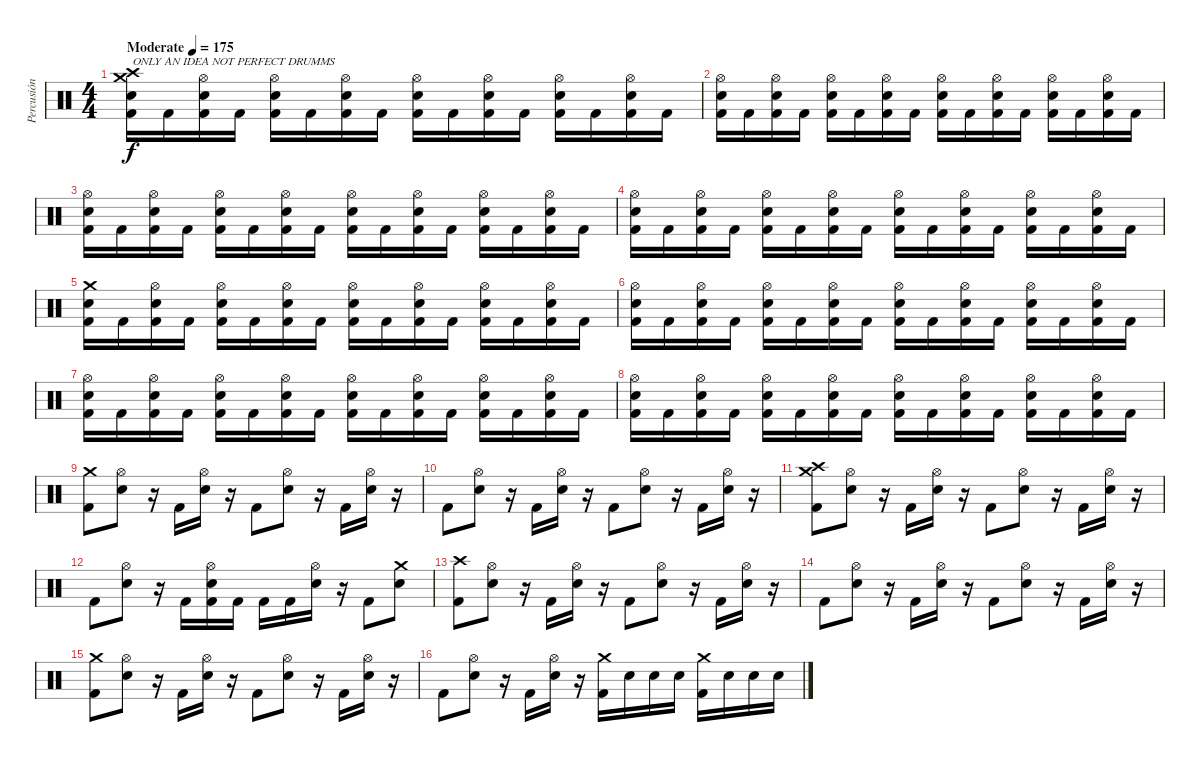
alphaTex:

\track ("Percusión" "Percusión") {instrument percussion}
\staff {score}
\articulation defaults
\ts (4 4)
\tempo (175 "Moderate")
\clef neutral
\ks c
("Crash medium (hit)" "Crash high (hit)" "Electric Snare (hit)" "Kick (hit) 2").16{txt "ONLY AN IDEA NOT PERFECT DRUMMS" dy f} "Kick (hit) 2".16 ("Hi-Hat (open)" "Electric Snare (hit)" "Kick (hit) 2").16 "Kick (hit) 2".16 ("Hi-Hat (open)" "Electric Snare (hit)" "Kick (hit) 2").16 "Kick (hit) 2".16 ("Hi-Hat (open)" "Electric Snare (hit)" "Kick (hit) 2").16 "Kick (hit) 2".16 ("Hi-Hat (open)" "Electric Snare (hit)" "Kick (hit) 2").16 "Kick (hit) 2".16 ("Hi-Hat (open)" "Electric Snare (hit)" "Kick (hit) 2").16 "Kick (hit) 2".16 ("Hi-Hat (open)" "Electric Snare (hit)" "Kick (hit) 2").16 "Kick (hit) 2".16 ("Hi-Hat (open)" "Electric Snare (hit)" "Kick (hit) 2").16 "Kick (hit) 2".16 |
("Hi-Hat (open)" "Electric Snare (hit)" "Kick (hit) 2").16 "Kick (hit) 2".16 ("Hi-Hat (open)" "Electric Snare (hit)" "Kick (hit) 2").16 "Kick (hit) 2".16 ("Hi-Hat (open)" "Electric Snare (hit)" "Kick (hit) 2").16 "Kick (hit) 2".16 ("Hi-Hat (open)" "Electric Snare (hit)" "Kick (hit) 2").16 "Kick (hit) 2".16 ("Hi-Hat (open)" "Electric Snare (hit)" "Kick (hit) 2").16 "Kick (hit) 2".16 ("Hi-Hat (open)" "Electric Snare (hit)" "Kick (hit) 2").16 "Kick (hit) 2".16 ("Hi-Hat (open)" "Electric Snare (hit)" "Kick (hit) 2").16 "Kick (hit) 2".16 ("Hi-Hat (open)" "Electric Snare (hit)" "Kick (hit) 2").16 "Kick (hit) 2".16 |
("Hi-Hat (open)" "Electric Snare (hit)" "Kick (hit) 2").16 "Kick (hit) 2".16 ("Hi-Hat (open)" "Electric Snare (hit)" "Kick (hit) 2").16 "Kick (hit) 2".16 ("Hi-Hat (open)" "Electric Snare (hit)" "Kick (hit) 2").16 "Kick (hit) 2".16 ("Hi-Hat (open)" "Electric Snare (hit)" "Kick (hit) 2").16 "Kick (hit) 2".16 ("Hi-Hat (open)" "Electric Snare (hit)" "Kick (hit) 2").16 "Kick (hit) 2".16 ("Hi-Hat (open)" "Electric Snare (hit)" "Kick (hit) 2").16 "Kick (hit) 2".16 ("Hi-Hat (open)" "Electric Snare (hit)" "Kick (hit) 2").16 "Kick (hit) 2".16 ("Hi-Hat (open)" "Electric Snare (hit)" "Kick (hit) 2").16 "Kick (hit) 2".16 |
("Hi-Hat (open)" "Electric Snare (hit)" "Kick (hit) 2").16 "Kick (hit) 2".16 ("Hi-Hat (open)" "Electric Snare (hit)" "Kick (hit) 2").16 "Kick (hit) 2".16 ("Hi-Hat (open)" "Electric Snare (hit)" "Kick (hit) 2").16 "Kick (hit) 2".16 ("Hi-Hat (open)" "Electric Snare (hit)" "Kick (hit) 2").16 "Kick (hit) 2".16 ("Hi-Hat (open)" "Electric Snare (hit)" "Kick (hit) 2").16 "Kick (hit) 2".16 ("Hi-Hat (open)" "Electric Snare (hit)" "Kick (hit) 2").16 "Kick (hit) 2".16 ("Hi-Hat (open)" "Electric Snare (hit)" "Kick (hit) 2").16 "Kick (hit) 2".16 ("Hi-Hat (open)" "Electric Snare (hit)" "Kick (hit) 2").16 "Kick (hit) 2".16 |
("Crash medium (hit)" "Electric Snare (hit)" "Kick (hit) 2").16 "Kick (hit) 2".16 ("Hi-Hat (open)" "Electric Snare (hit)" "Kick (hit) 2").16 "Kick (hit) 2".16 ("Hi-Hat (open)" "Electric Snare (hit)" "Kick (hit) 2").16 "Kick (hit) 2".16 ("Hi-Hat (open)" "Electric Snare (hit)" "Kick (hit) 2").16 "Kick (hit) 2".16 ("Hi-Hat (open)" "Electric Snare (hit)" "Kick (hit) 2").16 "Kick (hit) 2".16 ("Hi-Hat (open)" "Electric Snare (hit)" "Kick (hit) 2").16 "Kick (hit) 2".16 ("Hi-Hat (open)" "Electric Snare (hit)" "Kick (hit) 2").16 "Kick (hit) 2".16 ("Hi-Hat (open)" "Electric Snare (hit)" "Kick (hit) 2").16 "Kick (hit) 2".16 |
("Hi-Hat (open)" "Electric Snare (hit)" "Kick (hit) 2").16 "Kick (hit) 2".16 ("Hi-Hat (open)" "Electric Snare (hit)" "Kick (hit) 2").16 "Kick (hit) 2".16 ("Hi-Hat (open)" "Electric Snare (hit)" "Kick (hit) 2").16 "Kick (hit) 2".16 ("Hi-Hat (open)" "Electric Snare (hit)" "Kick (hit) 2").16 "Kick (hit) 2".16 ("Hi-Hat (open)" "Electric Snare (hit)" "Kick (hit) 2").16 "Kick (hit) 2".16 ("Hi-Hat (open)" "Electric Snare (hit)" "Kick (hit) 2").16 "Kick (hit) 2".16 ("Hi-Hat (open)" "Electric Snare (hit)" "Kick (hit) 2").16 "Kick (hit) 2".16 ("Hi-Hat (open)" "Electric Snare (hit)" "Kick (hit) 2").16 "Kick (hit) 2".16 |
("Hi-Hat (open)" "Electric Snare (hit)" "Kick (hit) 2").16 "Kick (hit) 2".16 ("Hi-Hat (open)" "Electric Snare (hit)" "Kick (hit) 2").16 "Kick (hit) 2".16 ("Hi-Hat (open)" "Electric Snare (hit)" "Kick (hit) 2").16 "Kick (hit) 2".16 ("Hi-Hat (open)" "Electric Snare (hit)" "Kick (hit) 2").16 "Kick (hit) 2".16 ("Hi-Hat (open)" "Electric Snare (hit)" "Kick (hit) 2").16 "Kick (hit) 2".16 ("Hi-Hat (open)" "Electric Snare (hit)" "Kick (hit) 2").16 "Kick (hit) 2".16 ("Hi-Hat (open)" "Electric Snare (hit)" "Kick (hit) 2").16 "Kick (hit) 2".16 ("Hi-Hat (open)" "Electric Snare (hit)" "Kick (hit) 2").16 "Kick (hit) 2".16 |
("Hi-Hat (open)" "Electric Snare (hit)" "Kick (hit) 2").16 "Kick (hit) 2".16 ("Hi-Hat (open)" "Electric Snare (hit)" "Kick (hit) 2").16 "Kick (hit) 2".16 ("Hi-Hat (open)" "Electric Snare (hit)" "Kick (hit) 2").16 "Kick (hit) 2".16 ("Hi-Hat (open)" "Electric Snare (hit)" "Kick (hit) 2").16 "Kick (hit) 2".16 ("Hi-Hat (open)" "Electric Snare (hit)" "Kick (hit) 2").16 "Kick (hit) 2".16 ("Hi-Hat (open)" "Electric Snare (hit)" "Kick (hit) 2").16 "Kick (hit) 2".16 ("Hi-Hat (open)" "Electric Snare (hit)" "Kick (hit) 2").16 "Kick (hit) 2".16 ("Hi-Hat (open)" "Electric Snare (hit)" "Kick (hit) 2").16 "Kick (hit) 2".16 |
("Crash medium (hit)" "Kick (hit) 2").8 ("Hi-Hat (open)" "Electric Snare (hit)").8 r.16 "Kick (hit) 2".16 ("Hi-Hat (open)" "Electric Snare (hit)").16 r.16 "Kick (hit) 2".8 ("Hi-Hat (open)" "Electric Snare (hit)").8 r.16 "Kick (hit) 2".16 ("Hi-Hat (open)" "Electric Snare (hit)").16 r.16 |
"Kick (hit) 2".8 ("Hi-Hat (open)" "Electric Snare (hit)").8 r.16 "Kick (hit) 2".16 ("Hi-Hat (open)" "Electric Snare (hit)").16 r.16 "Kick (hit) 2".8 ("Hi-Hat (open)" "Electric Snare (hit)").8 r.16 "Kick (hit) 2".16 ("Hi-Hat (open)" "Electric Snare (hit)").16 r.16 |
("Crash high (hit)" "Crash medium (hit)" "Kick (hit) 2").8 ("Hi-Hat (open)" "Electric Snare (hit)").8 r.16 "Kick (hit) 2".16 ("Hi-Hat (open)" "Electric Snare (hit)").16 r.16 "Kick (hit) 2".8 ("Hi-Hat (open)" "Electric Snare (hit)").8 r.16 "Kick (hit) 2".16 ("Hi-Hat (open)" "Electric Snare (hit)").16 r.16 |
"Kick (hit) 2".8 ("Hi-Hat (open)" "Electric Snare (hit)").8 r.16 "Kick (hit) 2".16 ("Hi-Hat (open)" "Electric Snare (hit)" "Kick (hit) 2").16 "Kick (hit) 2".16 "Kick (hit) 2".16 "Kick (hit) 2".16 ("Hi-Hat (open)" "Electric Snare (hit)").16 r.16 "Kick (hit) 2".8 ("Crash medium (hit)" "Electric Snare (hit)").8 |
("Crash high (hit)" "Kick (hit) 2").8 ("Hi-Hat (open)" "Electric Snare (hit)").8 r.16 "Kick (hit) 2".16 ("Hi-Hat (open)" "Electric Snare (hit)").16 r.16 "Kick (hit) 2".8 ("Hi-Hat (open)" "Electric Snare (hit)").8 r.16 "Kick (hit) 2".16 ("Hi-Hat (open)" "Electric Snare (hit)").16 r.16 |
"Kick (hit) 2".8 ("Hi-Hat (open)" "Electric Snare (hit)").8 r.16 "Kick (hit) 2".16 ("Hi-Hat (open)" "Electric Snare (hit)").16 r.16 "Kick (hit) 2".8 ("Hi-Hat (open)" "Electric Snare (hit)").8 r.16 "Kick (hit) 2".16 ("Hi-Hat (open)" "Electric Snare (hit)").16 r.16 |
("Crash medium (hit)" "Kick (hit) 2").8 ("Hi-Hat (open)" "Electric Snare (hit)").8 r.16 "Kick (hit) 2".16 ("Hi-Hat (open)" "Electric Snare (hit)").16 r.16 "Kick (hit) 2".8 ("Hi-Hat (open)" "Electric Snare (hit)").8 r.16 "Kick (hit) 2".16 ("Hi-Hat (open)" "Electric Snare (hit)").16 r.16 |
"Kick (hit) 2".8 ("Hi-Hat (open)" "Electric Snare (hit)").8 r.16 "Kick (hit) 2".16 ("Hi-Hat (open)" "Electric Snare (hit)").16 r.16 ("Crash medium (hit)" "Kick (hit) 2").16 "Electric Snare (hit)".16 "Electric Snare (hit)".16 "Electric Snare (hit)".16 ("Crash medium (hit)" "Kick (hit) 2").16 "Electric Snare (hit)".16 "Electric Snare (hit)".16 "Electric Snare (hit)".16
